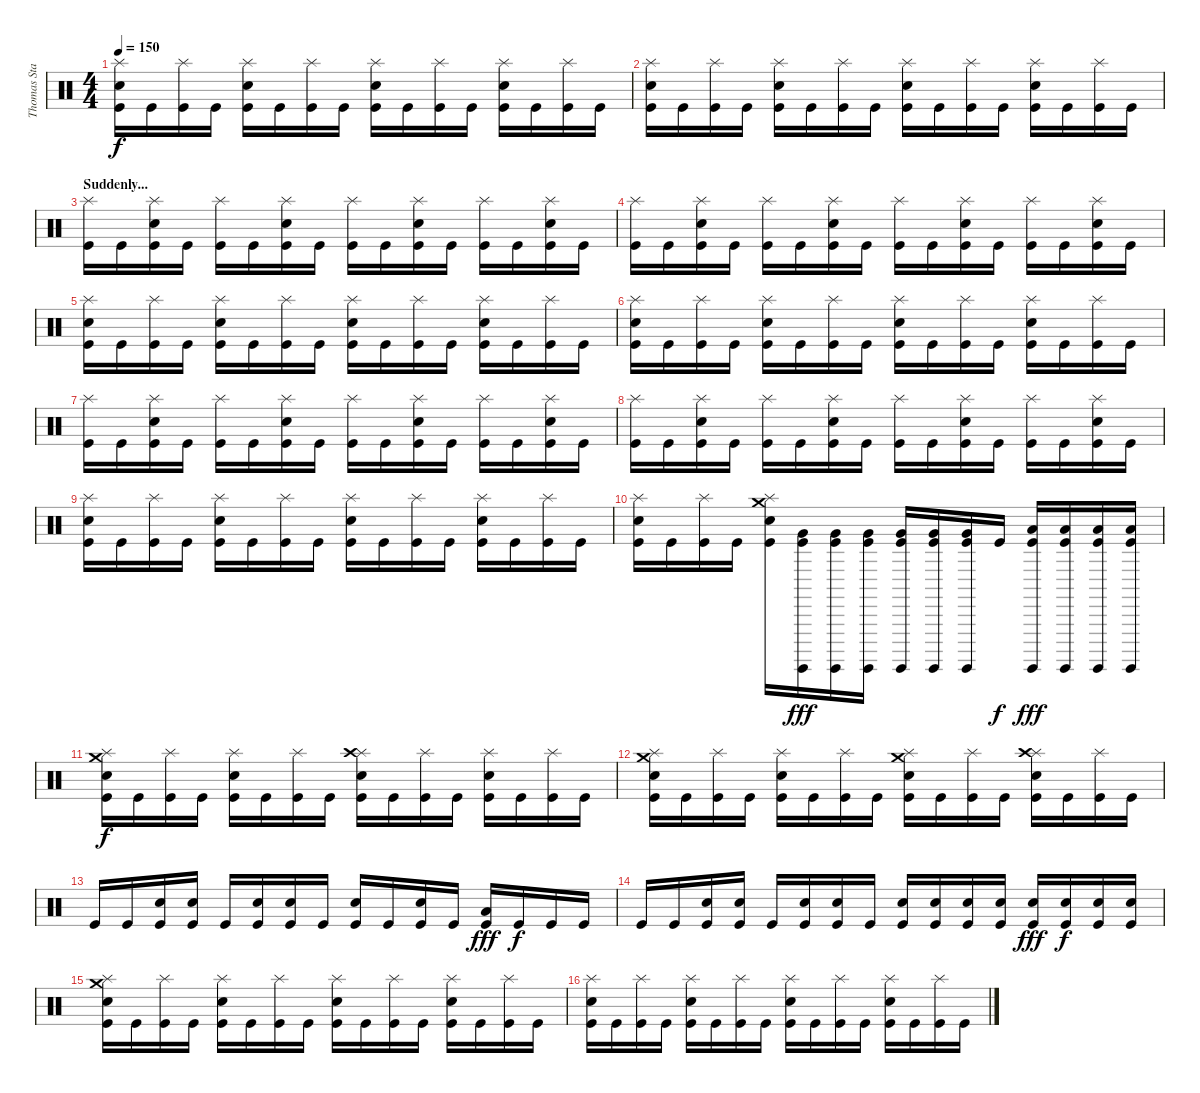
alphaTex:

\track ("Thomas Stauch" "Thomas Sta") {instrument percussion}
\staff {score}
\articulation defaults
\ts (4 4)
\tempo 150
\clef neutral
\ks c
("Splash (hit)" "Electric Snare (hit)" "Kick (hit)").16{dy f} "Kick (hit)".16 ("Splash (hit)" "Kick (hit)").16 "Kick (hit)".16 ("Splash (hit)" "Electric Snare (hit)" "Kick (hit)").16 "Kick (hit)".16 ("Splash (hit)" "Kick (hit)").16 "Kick (hit)".16 ("Splash (hit)" "Electric Snare (hit)" "Kick (hit)").16 "Kick (hit)".16 ("Splash (hit)" "Kick (hit)").16 "Kick (hit)".16 ("Splash (hit)" "Electric Snare (hit)" "Kick (hit)").16 "Kick (hit)".16 ("Splash (hit)" "Kick (hit)").16 "Kick (hit)".16 |
("Splash (hit)" "Electric Snare (hit)" "Kick (hit)").16 "Kick (hit)".16 ("Splash (hit)" "Kick (hit)").16 "Kick (hit)".16 ("Splash (hit)" "Electric Snare (hit)" "Kick (hit)").16 "Kick (hit)".16 ("Splash (hit)" "Kick (hit)").16 "Kick (hit)".16 ("Splash (hit)" "Electric Snare (hit)" "Kick (hit)").16 "Kick (hit)".16 ("Splash (hit)" "Kick (hit)").16 "Kick (hit)".16 ("Splash (hit)" "Electric Snare (hit)" "Kick (hit)").16 "Kick (hit)".16 ("Splash (hit)" "Kick (hit)").16 "Kick (hit)".16 |
\section ("" "Suddenly...")
("Splash (hit)" "Kick (hit)").16 "Kick (hit)".16 ("Splash (hit)" "Electric Snare (hit)" "Kick (hit)").16 "Kick (hit)".16 ("Splash (hit)" "Kick (hit)").16 "Kick (hit)".16 ("Splash (hit)" "Electric Snare (hit)" "Kick (hit)").16 "Kick (hit)".16 ("Splash (hit)" "Kick (hit)").16 "Kick (hit)".16 ("Splash (hit)" "Electric Snare (hit)" "Kick (hit)").16 "Kick (hit)".16 ("Splash (hit)" "Kick (hit)").16 "Kick (hit)".16 ("Splash (hit)" "Electric Snare (hit)" "Kick (hit)").16 "Kick (hit)".16 |
("Splash (hit)" "Kick (hit)").16 "Kick (hit)".16 ("Splash (hit)" "Electric Snare (hit)" "Kick (hit)").16 "Kick (hit)".16 ("Splash (hit)" "Kick (hit)").16 "Kick (hit)".16 ("Splash (hit)" "Electric Snare (hit)" "Kick (hit)").16 "Kick (hit)".16 ("Splash (hit)" "Kick (hit)").16 "Kick (hit)".16 ("Splash (hit)" "Electric Snare (hit)" "Kick (hit)").16 "Kick (hit)".16 ("Splash (hit)" "Kick (hit)").16 "Kick (hit)".16 ("Splash (hit)" "Electric Snare (hit)" "Kick (hit)").16 "Kick (hit)".16 |
("Splash (hit)" "Electric Snare (hit)" "Kick (hit)").16 "Kick (hit)".16 ("Splash (hit)" "Kick (hit)").16 "Kick (hit)".16 ("Splash (hit)" "Electric Snare (hit)" "Kick (hit)").16 "Kick (hit)".16 ("Splash (hit)" "Kick (hit)").16 "Kick (hit)".16 ("Splash (hit)" "Electric Snare (hit)" "Kick (hit)").16 "Kick (hit)".16 ("Splash (hit)" "Kick (hit)").16 "Kick (hit)".16 ("Splash (hit)" "Electric Snare (hit)" "Kick (hit)").16 "Kick (hit)".16 ("Splash (hit)" "Kick (hit)").16 "Kick (hit)".16 |
("Splash (hit)" "Electric Snare (hit)" "Kick (hit)").16 "Kick (hit)".16 ("Splash (hit)" "Kick (hit)").16 "Kick (hit)".16 ("Splash (hit)" "Electric Snare (hit)" "Kick (hit)").16 "Kick (hit)".16 ("Splash (hit)" "Kick (hit)").16 "Kick (hit)".16 ("Splash (hit)" "Electric Snare (hit)" "Kick (hit)").16 "Kick (hit)".16 ("Splash (hit)" "Kick (hit)").16 "Kick (hit)".16 ("Splash (hit)" "Electric Snare (hit)" "Kick (hit)").16 "Kick (hit)".16 ("Splash (hit)" "Kick (hit)").16 "Kick (hit)".16 |
("Splash (hit)" "Kick (hit)").16 "Kick (hit)".16 ("Splash (hit)" "Electric Snare (hit)" "Kick (hit)").16 "Kick (hit)".16 ("Splash (hit)" "Kick (hit)").16 "Kick (hit)".16 ("Splash (hit)" "Electric Snare (hit)" "Kick (hit)").16 "Kick (hit)".16 ("Splash (hit)" "Kick (hit)").16 "Kick (hit)".16 ("Splash (hit)" "Electric Snare (hit)" "Kick (hit)").16 "Kick (hit)".16 ("Splash (hit)" "Kick (hit)").16 "Kick (hit)".16 ("Splash (hit)" "Electric Snare (hit)" "Kick (hit)").16 "Kick (hit)".16 |
("Splash (hit)" "Kick (hit)").16 "Kick (hit)".16 ("Splash (hit)" "Electric Snare (hit)" "Kick (hit)").16 "Kick (hit)".16 ("Splash (hit)" "Kick (hit)").16 "Kick (hit)".16 ("Splash (hit)" "Electric Snare (hit)" "Kick (hit)").16 "Kick (hit)".16 ("Splash (hit)" "Kick (hit)").16 "Kick (hit)".16 ("Splash (hit)" "Electric Snare (hit)" "Kick (hit)").16 "Kick (hit)".16 ("Splash (hit)" "Kick (hit)").16 "Kick (hit)".16 ("Splash (hit)" "Electric Snare (hit)" "Kick (hit)").16 "Kick (hit)".16 |
("Splash (hit)" "Electric Snare (hit)" "Kick (hit)").16 "Kick (hit)".16 ("Splash (hit)" "Kick (hit)").16 "Kick (hit)".16 ("Splash (hit)" "Electric Snare (hit)" "Kick (hit)").16 "Kick (hit)".16 ("Splash (hit)" "Kick (hit)").16 "Kick (hit)".16 ("Splash (hit)" "Electric Snare (hit)" "Kick (hit)").16 "Kick (hit)".16 ("Splash (hit)" "Kick (hit)").16 "Kick (hit)".16 ("Splash (hit)" "Electric Snare (hit)" "Kick (hit)").16 "Kick (hit)".16 ("Splash (hit)" "Kick (hit)").16 "Kick (hit)".16 |
("Splash (hit)" "Electric Snare (hit)" "Kick (hit)").16 "Kick (hit)".16 ("Splash (hit)" "Kick (hit)").16 "Kick (hit)".16 ("Crash medium (hit)" "Splash (hit)" "Electric Snare (hit)" "Kick (hit)").16 ("Surdo (hit)" "Very Low Tom (hit)" "Kick (hit)").16{dy fff} ("Surdo (hit)" "Very Low Tom (hit)" "Kick (hit)").16 ("Surdo (hit)" "Very Low Tom (hit)" "Kick (hit)").16 ("Surdo (hit)" "Very Low Tom (hit)" "Kick (hit)").16 ("Surdo (hit)" "Very Low Tom (hit)" "Kick (hit)").16 ("Surdo (hit)" "Very Low Tom (hit)" "Kick (hit)").16 "Kick (hit)".16{dy f} ("Surdo (hit)" "Low Floor Tom (hit)" "Kick (hit)").16{dy fff} ("Surdo (hit)" "Low Floor Tom (hit)" "Kick (hit)").16 ("Surdo (hit)" "Low Floor Tom (hit)" "Kick (hit)").16 ("Surdo (hit)" "Low Floor Tom (hit)" "Kick (hit)").16 |
("Crash medium (hit)" "Splash (hit)" "Electric Snare (hit)" "Kick (hit)").16{dy f} "Kick (hit)".16 ("Splash (hit)" "Kick (hit)").16 "Kick (hit)".16 ("Splash (hit)" "Electric Snare (hit)" "Kick (hit)").16 "Kick (hit)".16 ("Splash (hit)" "Kick (hit)").16 "Kick (hit)".16 ("Splash (hit)" "Crash high (hit)" "Electric Snare (hit)" "Kick (hit)").16 "Kick (hit)".16 ("Splash (hit)" "Kick (hit)").16 "Kick (hit)".16 ("Splash (hit)" "Electric Snare (hit)" "Kick (hit)").16 "Kick (hit)".16 ("Splash (hit)" "Kick (hit)").16 "Kick (hit)".16 |
("Crash medium (hit)" "Splash (hit)" "Electric Snare (hit)" "Kick (hit)").16 "Kick (hit)".16 ("Splash (hit)" "Kick (hit)").16 "Kick (hit)".16 ("Splash (hit)" "Electric Snare (hit)" "Kick (hit)").16 "Kick (hit)".16 ("Splash (hit)" "Kick (hit)").16 "Kick (hit)".16 ("Crash medium (hit)" "Splash (hit)" "Electric Snare (hit)" "Kick (hit)").16 "Kick (hit)".16 ("Splash (hit)" "Kick (hit)").16 "Kick (hit)".16 ("Splash (hit)" "Crash high (hit)" "Electric Snare (hit)" "Kick (hit)").16 "Kick (hit)".16 ("Splash (hit)" "Kick (hit)").16 "Kick (hit)".16 |
"Kick (hit)".16 "Kick (hit)".16 ("Electric Snare (hit)" "Kick (hit)").16 ("Electric Snare (hit)" "Kick (hit)").16 "Kick (hit)".16 ("Electric Snare (hit)" "Kick (hit)").16 ("Electric Snare (hit)" "Kick (hit)").16 "Kick (hit)".16 ("Electric Snare (hit)" "Kick (hit)").16 "Kick (hit)".16 ("Electric Snare (hit)" "Kick (hit)").16 "Kick (hit)".16 ("Low Tom (hit)" "Kick (hit)").16{dy fff} "Kick (hit)".16{dy f} "Kick (hit)".16 "Kick (hit)".16 |
"Kick (hit)".16 "Kick (hit)".16 ("Electric Snare (hit)" "Kick (hit)").16 ("Electric Snare (hit)" "Kick (hit)").16 "Kick (hit)".16 ("Electric Snare (hit)" "Kick (hit)").16 ("Electric Snare (hit)" "Kick (hit)").16 "Kick (hit)".16 ("Electric Snare (hit)" "Kick (hit)").16 ("Electric Snare (hit)" "Kick (hit)").16 ("Electric Snare (hit)" "Kick (hit)").16 ("Electric Snare (hit)" "Kick (hit)").16 ("Electric Snare (hit)" "Kick (hit)").16{dy fff} ("Electric Snare (hit)" "Kick (hit)").16{dy f} ("Electric Snare (hit)" "Kick (hit)").16 ("Electric Snare (hit)" "Kick (hit)").16 |
("Crash medium (hit)" "Splash (hit)" "Electric Snare (hit)" "Kick (hit)").16 "Kick (hit)".16 ("Splash (hit)" "Kick (hit)").16 "Kick (hit)".16 ("Splash (hit)" "Electric Snare (hit)" "Kick (hit)").16 "Kick (hit)".16 ("Splash (hit)" "Kick (hit)").16 "Kick (hit)".16 ("Splash (hit)" "Electric Snare (hit)" "Kick (hit)").16 "Kick (hit)".16 ("Splash (hit)" "Kick (hit)").16 "Kick (hit)".16 ("Splash (hit)" "Electric Snare (hit)" "Kick (hit)").16 "Kick (hit)".16 ("Splash (hit)" "Kick (hit)").16 "Kick (hit)".16 |
("Splash (hit)" "Electric Snare (hit)" "Kick (hit)").16 "Kick (hit)".16 ("Splash (hit)" "Kick (hit)").16 "Kick (hit)".16 ("Splash (hit)" "Electric Snare (hit)" "Kick (hit)").16 "Kick (hit)".16 ("Splash (hit)" "Kick (hit)").16 "Kick (hit)".16 ("Splash (hit)" "Electric Snare (hit)" "Kick (hit)").16 "Kick (hit)".16 ("Splash (hit)" "Kick (hit)").16 "Kick (hit)".16 ("Splash (hit)" "Electric Snare (hit)" "Kick (hit)").16 "Kick (hit)".16 ("Splash (hit)" "Kick (hit)").16 "Kick (hit)".16
